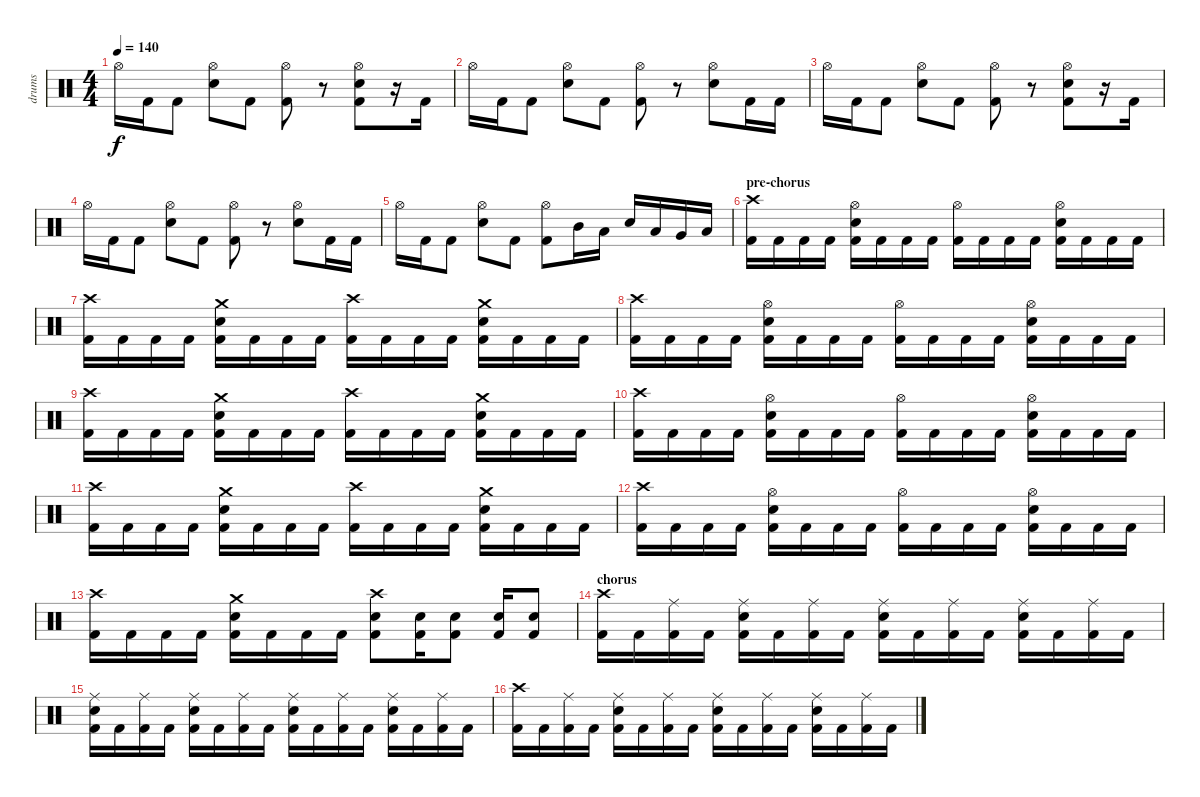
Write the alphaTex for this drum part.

\track ("drums" "drums") {instrument percussion}
\staff {score}
\articulation defaults
\ts (4 4)
\tempo 140
\clef neutral
\ks c "Hi-Hat (open)".16{dy f} "Kick (hit) 2".16 "Kick (hit) 2".8
("Hi-Hat (open)" "Electric Snare (hit)").8 "Kick (hit) 2".8 ("Hi-Hat (open)" "Kick (hit) 2").8 r.8 ("Hi-Hat (open)" "Electric Snare (hit)" "Kick (hit) 2").8 r.16 "Kick (hit) 2".16 |
"Hi-Hat (open)".16 "Kick (hit) 2".16 "Kick (hit) 2".8 ("Hi-Hat (open)" "Electric Snare (hit)").8 "Kick (hit) 2".8 ("Hi-Hat (open)" "Kick (hit) 2").8 r.8 ("Hi-Hat (open)" "Electric Snare (hit)").8 "Kick (hit) 2".16 "Kick (hit) 2".16 |
"Hi-Hat (open)".16 "Kick (hit) 2".16 "Kick (hit) 2".8 ("Hi-Hat (open)" "Electric Snare (hit)").8 "Kick (hit) 2".8 ("Hi-Hat (open)" "Kick (hit) 2").8 r.8 ("Hi-Hat (open)" "Electric Snare (hit)" "Kick (hit) 2").8 r.16 "Kick (hit) 2".16 |
"Hi-Hat (open)".16 "Kick (hit) 2".16 "Kick (hit) 2".8 ("Hi-Hat (open)" "Electric Snare (hit)").8 "Kick (hit) 2".8 ("Hi-Hat (open)" "Kick (hit) 2").8 r.8 ("Hi-Hat (open)" "Electric Snare (hit)").8 "Kick (hit) 2".16 "Kick (hit) 2".16 |
"Hi-Hat (open)".16 "Kick (hit) 2".16 "Kick (hit) 2".8 ("Hi-Hat (open)" "Electric Snare (hit)").8 "Kick (hit) 2".8 ("Hi-Hat (open)" "Kick (hit) 2").8 "Mid Tom (hit)".16 "Low Tom (hit)".16 "Electric Snare (hit)".16 "Low Tom (hit)".16 "Very Low Tom (hit)".16 "Low Floor Tom (hit)".16 |
\section ("" "pre-chorus")
("Crash high (hit)" "Kick (hit) 2").16 "Kick (hit) 2".16 "Kick (hit) 2".16 "Kick (hit) 2".16 ("Hi-Hat (open)" "Electric Snare (hit)" "Kick (hit) 2").16 "Kick (hit) 2".16 "Kick (hit) 2".16 "Kick (hit) 2".16 ("Hi-Hat (open)" "Kick (hit) 2").16 "Kick (hit) 2".16 "Kick (hit) 2".16 "Kick (hit) 2".16 ("Hi-Hat (open)" "Electric Snare (hit)" "Kick (hit) 2").16 "Kick (hit) 2".16 "Kick (hit) 2".16 "Kick (hit) 2".16 |
("Crash high (hit)" "Kick (hit) 2").16 "Kick (hit) 2".16 "Kick (hit) 2".16 "Kick (hit) 2".16 ("Crash medium (hit)" "Electric Snare (hit)" "Kick (hit) 2").16 "Kick (hit) 2".16 "Kick (hit) 2".16 "Kick (hit) 2".16 ("Crash high (hit)" "Kick (hit) 2").16 "Kick (hit) 2".16 "Kick (hit) 2".16 "Kick (hit) 2".16 ("Crash medium (hit)" "Electric Snare (hit)" "Kick (hit) 2").16 "Kick (hit) 2".16 "Kick (hit) 2".16 "Kick (hit) 2".16 |
("Crash high (hit)" "Kick (hit) 2").16 "Kick (hit) 2".16 "Kick (hit) 2".16 "Kick (hit) 2".16 ("Hi-Hat (open)" "Electric Snare (hit)" "Kick (hit) 2").16 "Kick (hit) 2".16 "Kick (hit) 2".16 "Kick (hit) 2".16 ("Hi-Hat (open)" "Kick (hit) 2").16 "Kick (hit) 2".16 "Kick (hit) 2".16 "Kick (hit) 2".16 ("Hi-Hat (open)" "Electric Snare (hit)" "Kick (hit) 2").16 "Kick (hit) 2".16 "Kick (hit) 2".16 "Kick (hit) 2".16 |
("Crash high (hit)" "Kick (hit) 2").16 "Kick (hit) 2".16 "Kick (hit) 2".16 "Kick (hit) 2".16 ("Crash medium (hit)" "Electric Snare (hit)" "Kick (hit) 2").16 "Kick (hit) 2".16 "Kick (hit) 2".16 "Kick (hit) 2".16 ("Crash high (hit)" "Kick (hit) 2").16 "Kick (hit) 2".16 "Kick (hit) 2".16 "Kick (hit) 2".16 ("Crash medium (hit)" "Electric Snare (hit)" "Kick (hit) 2").16 "Kick (hit) 2".16 "Kick (hit) 2".16 "Kick (hit) 2".16 |
("Crash high (hit)" "Kick (hit) 2").16 "Kick (hit) 2".16 "Kick (hit) 2".16 "Kick (hit) 2".16 ("Hi-Hat (open)" "Electric Snare (hit)" "Kick (hit) 2").16 "Kick (hit) 2".16 "Kick (hit) 2".16 "Kick (hit) 2".16 ("Hi-Hat (open)" "Kick (hit) 2").16 "Kick (hit) 2".16 "Kick (hit) 2".16 "Kick (hit) 2".16 ("Hi-Hat (open)" "Electric Snare (hit)" "Kick (hit) 2").16 "Kick (hit) 2".16 "Kick (hit) 2".16 "Kick (hit) 2".16 |
("Crash high (hit)" "Kick (hit) 2").16 "Kick (hit) 2".16 "Kick (hit) 2".16 "Kick (hit) 2".16 ("Crash medium (hit)" "Electric Snare (hit)" "Kick (hit) 2").16 "Kick (hit) 2".16 "Kick (hit) 2".16 "Kick (hit) 2".16 ("Crash high (hit)" "Kick (hit) 2").16 "Kick (hit) 2".16 "Kick (hit) 2".16 "Kick (hit) 2".16 ("Crash medium (hit)" "Electric Snare (hit)" "Kick (hit) 2").16 "Kick (hit) 2".16 "Kick (hit) 2".16 "Kick (hit) 2".16 |
("Crash high (hit)" "Kick (hit) 2").16 "Kick (hit) 2".16 "Kick (hit) 2".16 "Kick (hit) 2".16 ("Hi-Hat (open)" "Electric Snare (hit)" "Kick (hit) 2").16 "Kick (hit) 2".16 "Kick (hit) 2".16 "Kick (hit) 2".16 ("Hi-Hat (open)" "Kick (hit) 2").16 "Kick (hit) 2".16 "Kick (hit) 2".16 "Kick (hit) 2".16 ("Hi-Hat (open)" "Electric Snare (hit)" "Kick (hit) 2").16 "Kick (hit) 2".16 "Kick (hit) 2".16 "Kick (hit) 2".16 |
("Crash high (hit)" "Kick (hit) 2").16 "Kick (hit) 2".16 "Kick (hit) 2".16 "Kick (hit) 2".16 ("Crash medium (hit)" "Electric Snare (hit)" "Kick (hit) 2").16 "Kick (hit) 2".16 "Kick (hit) 2".16 "Kick (hit) 2".16 ("Crash high (hit)" "Electric Snare (hit)" "Kick (hit) 2").8 ("Electric Snare (hit)" "Kick (hit) 2").16 ("Electric Snare (hit)" "Kick (hit) 2").8 ("Electric Snare (hit)" "Kick (hit) 2").16 ("Electric Snare (hit)" "Kick (hit) 2").8 |
\section ("" "chorus")
("Crash high (hit)" "Kick (hit) 2").16 "Kick (hit) 2".16 ("Ride (middle)" "Kick (hit) 2").16 "Kick (hit) 2".16 ("Ride (middle)" "Electric Snare (hit)" "Kick (hit) 2").16 "Kick (hit) 2".16 ("Ride (middle)" "Kick (hit) 2").16 "Kick (hit) 2".16 ("Ride (middle)" "Electric Snare (hit)" "Kick (hit) 2").16 "Kick (hit) 2".16 ("Ride (middle)" "Kick (hit) 2").16 "Kick (hit) 2".16 ("Ride (middle)" "Electric Snare (hit)" "Kick (hit) 2").16 "Kick (hit) 2".16 ("Ride (middle)" "Kick (hit) 2").16 "Kick (hit) 2".16 |
("Ride (middle)" "Electric Snare (hit)" "Kick (hit) 2").16 "Kick (hit) 2".16 ("Ride (middle)" "Kick (hit) 2").16 "Kick (hit) 2".16 ("Ride (middle)" "Electric Snare (hit)" "Kick (hit) 2").16 "Kick (hit) 2".16 ("Ride (middle)" "Kick (hit) 2").16 "Kick (hit) 2".16 ("Ride (middle)" "Electric Snare (hit)" "Kick (hit) 2").16 "Kick (hit) 2".16 ("Ride (middle)" "Kick (hit) 2").16 "Kick (hit) 2".16 ("Ride (middle)" "Electric Snare (hit)" "Kick (hit) 2").16 "Kick (hit) 2".16 ("Ride (middle)" "Kick (hit) 2").16 "Kick (hit) 2".16 |
("Crash high (hit)" "Kick (hit) 2").16 "Kick (hit) 2".16 ("Ride (middle)" "Kick (hit) 2").16 "Kick (hit) 2".16 ("Ride (middle)" "Electric Snare (hit)" "Kick (hit) 2").16 "Kick (hit) 2".16 ("Ride (middle)" "Kick (hit) 2").16 "Kick (hit) 2".16 ("Ride (middle)" "Electric Snare (hit)" "Kick (hit) 2").16 "Kick (hit) 2".16 ("Ride (middle)" "Kick (hit) 2").16 "Kick (hit) 2".16 ("Ride (middle)" "Electric Snare (hit)" "Kick (hit) 2").16 "Kick (hit) 2".16 ("Ride (middle)" "Kick (hit) 2").16 "Kick (hit) 2".16
